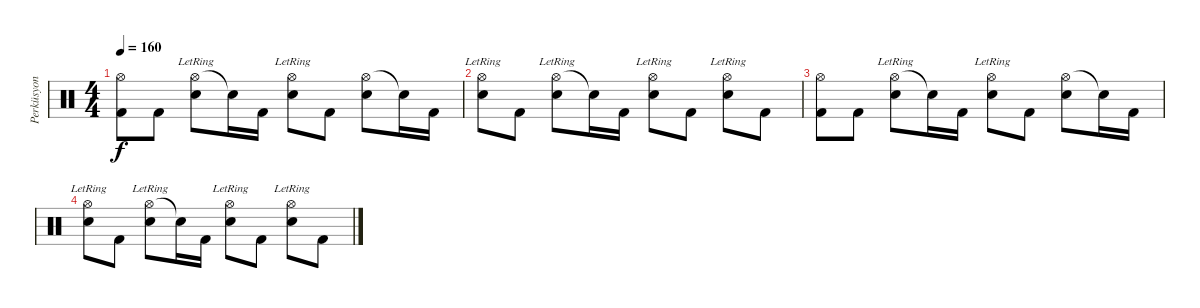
\track ("Perküsyon" "Perküsyon") {instrument percussion}
\staff {score}
\articulation defaults
\ts (4 4)
\tempo 160
\clef neutral
\ks c
("Hi-Hat (open)" "Kick (hit) 2").8{dy f} "Kick (hit) 2".8 ("Hi-Hat (open)" "Electric Snare (hit)"{lr}).8 "Snare (hit)"{t}.16 "Kick (hit) 2".16 ("Hi-Hat (open)" "Electric Snare (hit)"{lr}).8 "Kick (hit) 2".8 ("Hi-Hat (open)" "Electric Snare (hit)").8 "Snare (hit)"{t}.16 "Kick (hit) 2".16 |
("Hi-Hat (open)" "Electric Snare (hit)"{lr}).8 "Kick (hit) 2".8 ("Hi-Hat (open)" "Electric Snare (hit)"{lr}).8 "Snare (hit)"{t}.16 "Kick (hit) 2".16 ("Hi-Hat (open)" "Electric Snare (hit)"{lr}).8 "Kick (hit) 2".8 ("Hi-Hat (open)" "Electric Snare (hit)"{lr}).8 "Kick (hit) 2".8 |
("Hi-Hat (open)" "Kick (hit) 2").8 "Kick (hit) 2".8 ("Hi-Hat (open)" "Electric Snare (hit)"{lr}).8 "Snare (hit)"{t}.16 "Kick (hit) 2".16 ("Hi-Hat (open)" "Electric Snare (hit)"{lr}).8 "Kick (hit) 2".8 ("Hi-Hat (open)" "Electric Snare (hit)").8 "Snare (hit)"{t}.16 "Kick (hit) 2".16 |
("Hi-Hat (open)" "Electric Snare (hit)"{lr}).8 "Kick (hit) 2".8 ("Hi-Hat (open)" "Electric Snare (hit)"{lr}).8 "Snare (hit)"{t}.16 "Kick (hit) 2".16 ("Hi-Hat (open)" "Electric Snare (hit)"{lr}).8 "Kick (hit) 2".8 ("Hi-Hat (open)" "Electric Snare (hit)"{lr}).8 "Kick (hit) 2".8
